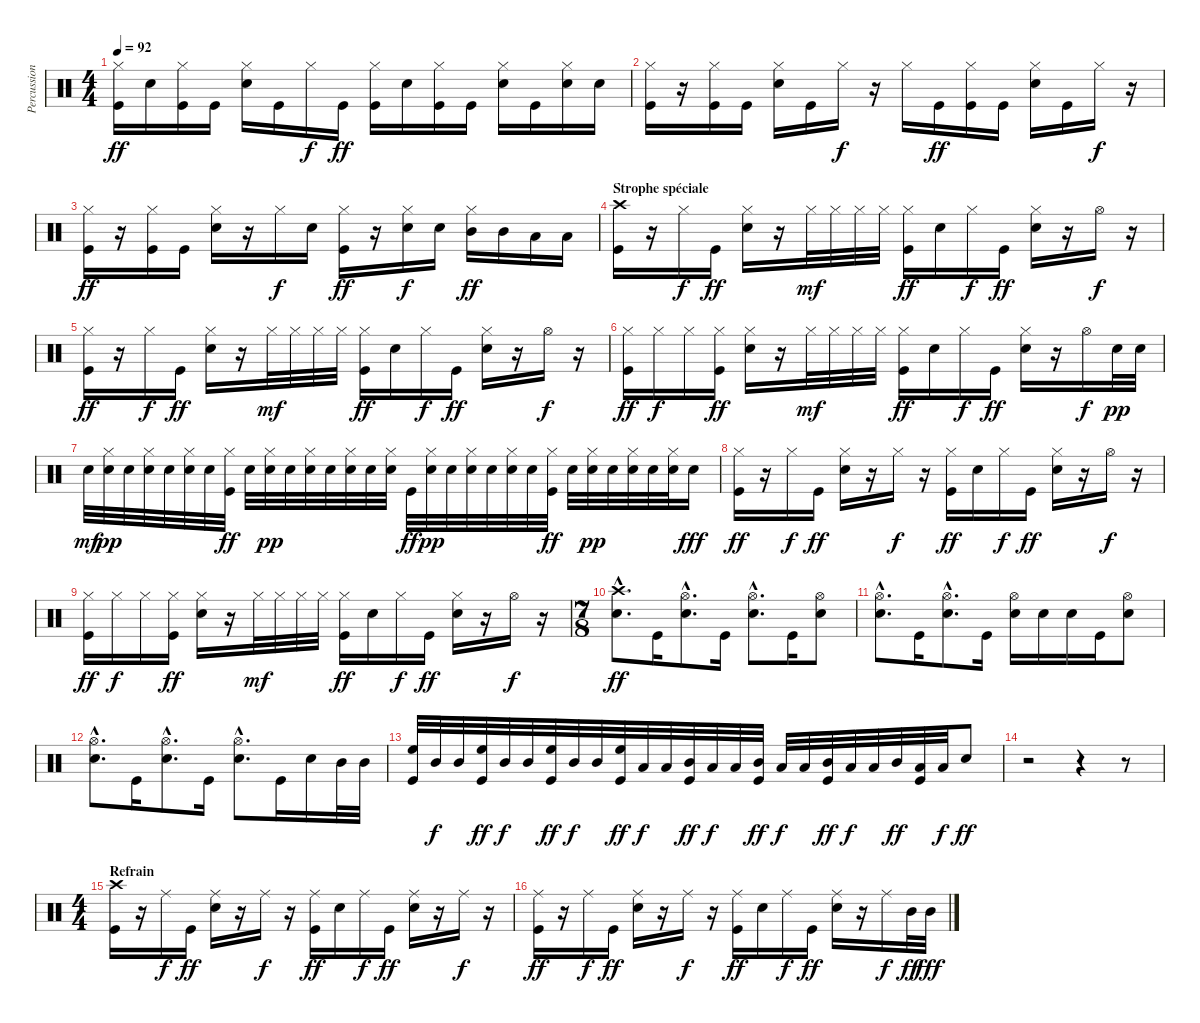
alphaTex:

\track ("Percussions" "Percussion") {instrument percussion}
\staff {score}
\articulation defaults
\ts (4 4)
\tempo 92
\clef neutral
\ks c
("Hi-Hat (closed)" "Kick (hit)").16{dy ff} "Snare (hit) 2".16 ("Hi-Hat (closed)" "Kick (hit)").16 "Kick (hit)".16 ("Hi-Hat (closed)" "Snare (hit) 2").16 "Kick (hit)".16 "Hi-Hat (closed)".16{dy f} "Kick (hit)".16{dy ff} ("Hi-Hat (closed)" "Kick (hit)").16 "Snare (hit) 2".16 ("Hi-Hat (closed)" "Kick (hit)").16 "Kick (hit)".16 ("Hi-Hat (closed)" "Snare (hit) 2").16 "Kick (hit)".16 ("Hi-Hat (closed)" "Snare (hit) 2").16 "Snare (hit) 2".16 |
("Hi-Hat (closed)" "Kick (hit)").16 r.16 ("Hi-Hat (closed)" "Kick (hit)").16 "Kick (hit)".16 ("Hi-Hat (closed)" "Snare (hit) 2").16 "Kick (hit)".16 "Hi-Hat (closed)".16{dy f} r.16 "Hi-Hat (closed)".16 "Kick (hit)".16{dy ff} ("Hi-Hat (closed)" "Kick (hit)").16 "Kick (hit)".16 ("Hi-Hat (closed)" "Snare (hit) 2").16 "Kick (hit)".16 "Hi-Hat (closed)".16{dy f} r.16 |
("Hi-Hat (closed)" "Kick (hit)").16{dy ff} r.16 ("Hi-Hat (closed)" "Kick (hit)").16 "Kick (hit)".16 ("Hi-Hat (closed)" "Snare (hit) 2").16 r.16 "Hi-Hat (closed)".16{dy f} "Snare (hit) 2".16 ("Hi-Hat (closed)" "Kick (hit)").16{dy ff} r.16 ("Hi-Hat (closed)" "Snare (hit) 2").16{dy f} "Snare (hit) 2".16 ("Hi-Hat (closed)" "Mid Tom (hit)").16{dy ff} "Mid Tom (hit)".16 "Low Tom (hit)".16 "Low Tom (hit)".16 |
\section ("" "Strophe spéciale")
("Crash high (hit)" "Kick (hit)").16 r.16 "Hi-Hat (closed)".16{dy f} "Kick (hit)".16{dy ff} ("Hi-Hat (closed)" "Snare (hit) 2").16 r.16 "Hi-Hat (closed)".32{dy mf} "Hi-Hat (closed)".32 "Hi-Hat (closed)".32 "Hi-Hat (closed)".32 ("Hi-Hat (closed)" "Kick (hit)").16{dy ff} "Snare (hit) 2".16 "Hi-Hat (closed)".16{dy f} "Kick (hit)".16{dy ff} ("Hi-Hat (closed)" "Snare (hit) 2").16 r.16 "Hi-Hat (open)".16{dy f} r.16 |
("Hi-Hat (closed)" "Kick (hit)").16{dy ff} r.16 "Hi-Hat (closed)".16{dy f} "Kick (hit)".16{dy ff} ("Hi-Hat (closed)" "Snare (hit) 2").16 r.16 "Hi-Hat (closed)".32{dy mf} "Hi-Hat (closed)".32 "Hi-Hat (closed)".32 "Hi-Hat (closed)".32 ("Hi-Hat (closed)" "Kick (hit)").16{dy ff} "Snare (hit) 2".16 "Hi-Hat (closed)".16{dy f} "Kick (hit)".16{dy ff} ("Hi-Hat (closed)" "Snare (hit) 2").16 r.16 "Hi-Hat (open)".16{dy f} r.16 |
("Hi-Hat (closed)" "Kick (hit)").16{dy ff} "Hi-Hat (closed)".16{dy f} "Hi-Hat (closed)".16 ("Hi-Hat (closed)" "Kick (hit)").16{dy ff} ("Hi-Hat (closed)" "Snare (hit) 2").16 r.16 "Hi-Hat (closed)".32{dy mf} "Hi-Hat (closed)".32 "Hi-Hat (closed)".32 "Hi-Hat (closed)".32 ("Hi-Hat (closed)" "Kick (hit)").16{dy ff} "Snare (hit) 2".16 "Hi-Hat (closed)".16{dy f} "Kick (hit)".16{dy ff} ("Hi-Hat (closed)" "Snare (hit) 2").16 r.16 "Hi-Hat (open)".16{dy f} "Snare (hit) 2".32{dy pp} "Snare (hit) 2".32 |
"Snare (hit) 2".32{dy mf} ("Hi-Hat (closed)" "Snare (hit) 2").32{dy pp} "Snare (hit) 2".32 ("Hi-Hat (closed)" "Snare (hit) 2").32 "Snare (hit) 2".32 ("Hi-Hat (closed)" "Snare (hit) 2").32 "Snare (hit) 2".32 ("Hi-Hat (closed)" "Kick (hit)").32{dy ff} "Snare (hit) 2".32 ("Hi-Hat (closed)" "Snare (hit) 2").32{dy pp} "Snare (hit) 2".32 ("Hi-Hat (closed)" "Snare (hit) 2").32 "Snare (hit) 2".32 ("Hi-Hat (closed)" "Snare (hit) 2").32 "Snare (hit) 2".32 ("Hi-Hat (closed)" "Snare (hit) 2").32 "Kick (hit)".32{dy ff} ("Hi-Hat (closed)" "Snare (hit) 2").32{dy pp} "Snare (hit) 2".32 ("Hi-Hat (closed)" "Snare (hit) 2").32 "Snare (hit) 2".32 ("Hi-Hat (closed)" "Snare (hit) 2").32 "Snare (hit) 2".32 ("Hi-Hat (closed)" "Kick (hit)").32{dy ff} "Snare (hit) 2".32 ("Hi-Hat (closed)" "Snare (hit) 2").32{dy pp} "Snare (hit) 2".32 ("Hi-Hat (closed)" "Snare (hit) 2").32 "Snare (hit) 2".32 ("Hi-Hat (closed)" "Snare (hit) 2").32 "Snare (hit) 2".16{dy fff} |
("Hi-Hat (closed)" "Kick (hit)").16{dy ff} r.16 "Hi-Hat (closed)".16{dy f} "Kick (hit)".16{dy ff} ("Hi-Hat (closed)" "Snare (hit) 2").16 r.16 "Hi-Hat (closed)".16{dy f} r.16 ("Hi-Hat (closed)" "Kick (hit)").16{dy ff} "Snare (hit) 2".16 "Hi-Hat (closed)".16{dy f} "Kick (hit)".16{dy ff} ("Hi-Hat (closed)" "Snare (hit) 2").16 r.16 "Hi-Hat (open)".16{dy f} r.16 |
("Hi-Hat (closed)" "Kick (hit)").16{dy ff} "Hi-Hat (closed)".16{dy f} "Hi-Hat (closed)".16 ("Hi-Hat (closed)" "Kick (hit)").16{dy ff} ("Hi-Hat (closed)" "Snare (hit) 2").16 r.16 "Hi-Hat (closed)".32{dy mf} "Hi-Hat (closed)".32 "Hi-Hat (closed)".32 "Hi-Hat (closed)".32 ("Hi-Hat (closed)" "Kick (hit)").16{dy ff} "Snare (hit) 2".16 "Hi-Hat (closed)".16{dy f} "Kick (hit)".16{dy ff} ("Hi-Hat (closed)" "Snare (hit) 2").16 r.16 "Hi-Hat (open)".16{dy f} r.16 |
\ts (7 8)
("Crash high (hit)"{hac} "Snare (hit) 2"{hac}).8{d dy ff} "Kick (hit)".16 ("Hi-Hat (open)"{hac} "Snare (hit) 2"{hac}).8{d} "Kick (hit)".16 ("Hi-Hat (open)"{hac} "Snare (hit) 2"{hac}).8{d} "Kick (hit)".16 ("Hi-Hat (open)" "Snare (hit) 2").8 |
("Hi-Hat (open)"{hac} "Snare (hit) 2"{hac}).8{d} "Kick (hit)".16 ("Hi-Hat (open)"{hac} "Snare (hit) 2"{hac}).8{d} "Kick (hit)".16 ("Hi-Hat (open)" "Snare (hit) 2").16 "Snare (hit) 2".16 "Snare (hit) 2".16 "Kick (hit)".16 ("Hi-Hat (open)" "Snare (hit) 2").8 |
("Hi-Hat (open)"{hac} "Snare (hit) 2"{hac}).8{d} "Kick (hit)".16 ("Hi-Hat (open)"{hac} "Snare (hit) 2"{hac}).8{d} "Kick (hit)".16 ("Hi-Hat (open)"{hac} "Snare (hit) 2"{hac}).8{d} "Kick (hit)".16 "Snare (hit) 2".16 "Mid Tom (hit)".32 "Mid Tom (hit)".32 |
("High Floor Tom (hit)" "Kick (hit)").32 "Mid Tom (hit)".32{dy f} "Mid Tom (hit)".32 ("High Floor Tom (hit)" "Kick (hit)").32{dy ff} "Mid Tom (hit)".32{dy f} "Mid Tom (hit)".32 ("High Floor Tom (hit)" "Kick (hit)").32{dy ff} "Mid Tom (hit)".32{dy f} "Mid Tom (hit)".32 ("High Floor Tom (hit)" "Kick (hit)").32{dy ff} "Low Tom (hit)".32{dy f} "Low Tom (hit)".32 ("Mid Tom (hit)" "Kick (hit)").32{dy ff} "Low Tom (hit)".32{dy f} "Low Tom (hit)".32 ("Mid Tom (hit)" "Kick (hit)").32{dy ff} "Low Tom (hit)".32{dy f} "Low Tom (hit)".32 ("Mid Tom (hit)" "Kick (hit)").32{dy ff} "Low Tom (hit)".32{dy f} "Low Tom (hit)".32 "Mid Tom (hit)".32{dy ff} ("Low Tom (hit)" "Kick (hit)").32 "Low Tom (hit)".32{dy f} "Snare (hit) 2".8{dy ff} |
r.2 r.4 r.8 |
\ts (4 4)
\section ("" "Refrain")
("Crash high (hit)" "Kick (hit)").16 r.16 "Ride (middle)".16{dy f} "Kick (hit)".16{dy ff} ("Ride (middle)" "Snare (hit) 2").16 r.16 "Ride (middle)".16{dy f} r.16 ("Ride (middle)" "Kick (hit)").16{dy ff} "Snare (hit) 2".16 "Ride (middle)".16{dy f} "Kick (hit)".16{dy ff} ("Ride (middle)" "Snare (hit) 2").16 r.16 "Ride (middle)".16{dy f} r.16 |
("Ride (middle)" "Kick (hit)").16{dy ff} r.16 "Ride (middle)".16{dy f} "Kick (hit)".16{dy ff} ("Ride (middle)" "Snare (hit) 2").16 r.16 "Ride (middle)".16{dy f} r.16 ("Ride (middle)" "Kick (hit)").16{dy ff} "Snare (hit) 2".16 "Ride (middle)".16{dy f} "Kick (hit)".16{dy ff} ("Ride (middle)" "Snare (hit) 2").16 r.16 "Ride (middle)".16{dy f} "Mid Tom (hit)".32{dy ff} "Mid Tom (hit)".32{dy fff}
